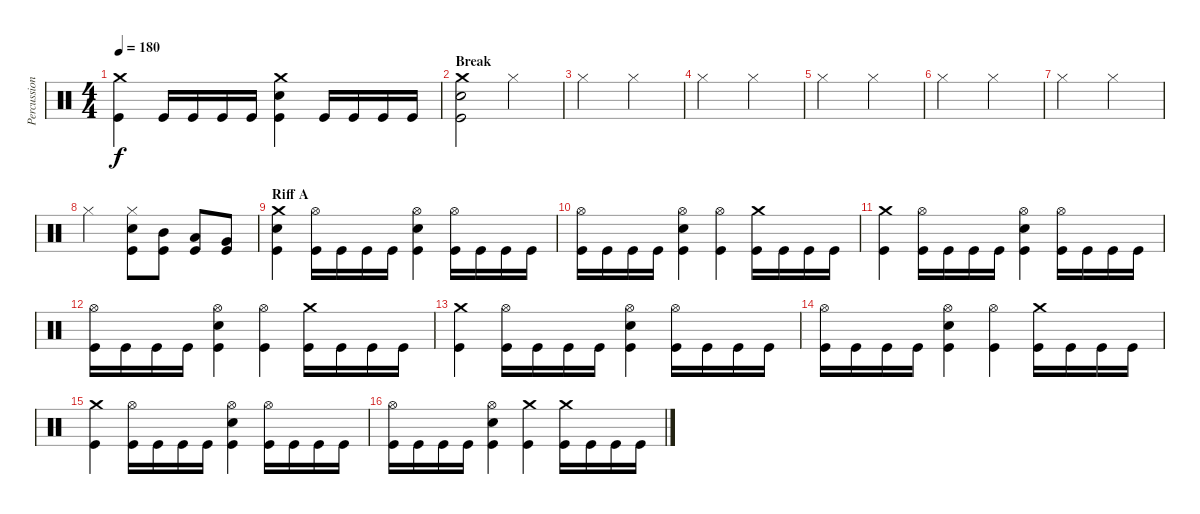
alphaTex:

\track ("Percussion" "Percussion") {instrument percussion}
\staff {score}
\articulation defaults
\ts (4 4)
\tempo 180
\clef neutral
\ks c
("Crash medium (hit)" "Kick (hit)").4{dy f} "Kick (hit)".16 "Kick (hit)".16 "Kick (hit)".16 "Kick (hit)".16 ("Crash medium (hit)" "Snare (hit) 2" "Kick (hit)").4 "Kick (hit)".16 "Kick (hit)".16 "Kick (hit)".16 "Kick (hit)".16 |
\section ("" "Break")
("Crash medium (hit)" "Snare (hit) 2" "Kick (hit)").2 "Hi-Hat (closed)".2 |
"Hi-Hat (closed)".2 "Hi-Hat (closed)".2 |
"Hi-Hat (closed)".2 "Hi-Hat (closed)".2 |
"Hi-Hat (closed)".2 "Hi-Hat (closed)".2 |
"Hi-Hat (closed)".2 "Hi-Hat (closed)".2 |
"Hi-Hat (closed)".2 "Hi-Hat (closed)".2 |
"Hi-Hat (closed)".2 ("Hi-Hat (closed)" "Snare (hit) 2" "Kick (hit)").8 ("Mid Tom (hit)" "Kick (hit)").8 ("Low Tom (hit)" "Kick (hit)").8 ("Very Low Tom (hit)" "Kick (hit)").8 |
\section ("" "Riff A")
("Crash medium (hit)" "Snare (hit) 2" "Kick (hit)").4 ("Hi-Hat (open)" "Kick (hit)").16 "Kick (hit)".16 "Kick (hit)".16 "Kick (hit)".16 ("Hi-Hat (open)" "Snare (hit) 2" "Kick (hit)").4 ("Hi-Hat (open)" "Kick (hit)").16 "Kick (hit)".16 "Kick (hit)".16 "Kick (hit)".16 |
("Hi-Hat (open)" "Kick (hit)").16 "Kick (hit)".16 "Kick (hit)".16 "Kick (hit)".16 ("Hi-Hat (open)" "Snare (hit) 2" "Kick (hit)").4 ("Hi-Hat (open)" "Kick (hit)").4 ("Crash medium (hit)" "Kick (hit)").16 "Kick (hit)".16 "Kick (hit)".16 "Kick (hit)".16 |
("Crash medium (hit)" "Kick (hit)").4 ("Hi-Hat (open)" "Kick (hit)").16 "Kick (hit)".16 "Kick (hit)".16 "Kick (hit)".16 ("Hi-Hat (open)" "Snare (hit) 2" "Kick (hit)").4 ("Hi-Hat (open)" "Kick (hit)").16 "Kick (hit)".16 "Kick (hit)".16 "Kick (hit)".16 |
("Hi-Hat (open)" "Kick (hit)").16 "Kick (hit)".16 "Kick (hit)".16 "Kick (hit)".16 ("Hi-Hat (open)" "Snare (hit) 2" "Kick (hit)").4 ("Hi-Hat (open)" "Kick (hit)").4 ("Crash medium (hit)" "Kick (hit)").16 "Kick (hit)".16 "Kick (hit)".16 "Kick (hit)".16 |
("Crash medium (hit)" "Kick (hit)").4 ("Hi-Hat (open)" "Kick (hit)").16 "Kick (hit)".16 "Kick (hit)".16 "Kick (hit)".16 ("Hi-Hat (open)" "Snare (hit) 2" "Kick (hit)").4 ("Hi-Hat (open)" "Kick (hit)").16 "Kick (hit)".16 "Kick (hit)".16 "Kick (hit)".16 |
("Hi-Hat (open)" "Kick (hit)").16 "Kick (hit)".16 "Kick (hit)".16 "Kick (hit)".16 ("Hi-Hat (open)" "Snare (hit) 2" "Kick (hit)").4 ("Hi-Hat (open)" "Kick (hit)").4 ("Crash medium (hit)" "Kick (hit)").16 "Kick (hit)".16 "Kick (hit)".16 "Kick (hit)".16 |
("Crash medium (hit)" "Kick (hit)").4 ("Hi-Hat (open)" "Kick (hit)").16 "Kick (hit)".16 "Kick (hit)".16 "Kick (hit)".16 ("Hi-Hat (open)" "Snare (hit) 2" "Kick (hit)").4 ("Hi-Hat (open)" "Kick (hit)").16 "Kick (hit)".16 "Kick (hit)".16 "Kick (hit)".16 |
("Hi-Hat (open)" "Kick (hit)").16 "Kick (hit)".16 "Kick (hit)".16 "Kick (hit)".16 ("Hi-Hat (open)" "Snare (hit) 2" "Kick (hit)").4 ("Crash medium (hit)" "Kick (hit)").4 ("Crash medium (hit)" "Kick (hit)").16 "Kick (hit)".16 "Kick (hit)".16 "Kick (hit)".16
